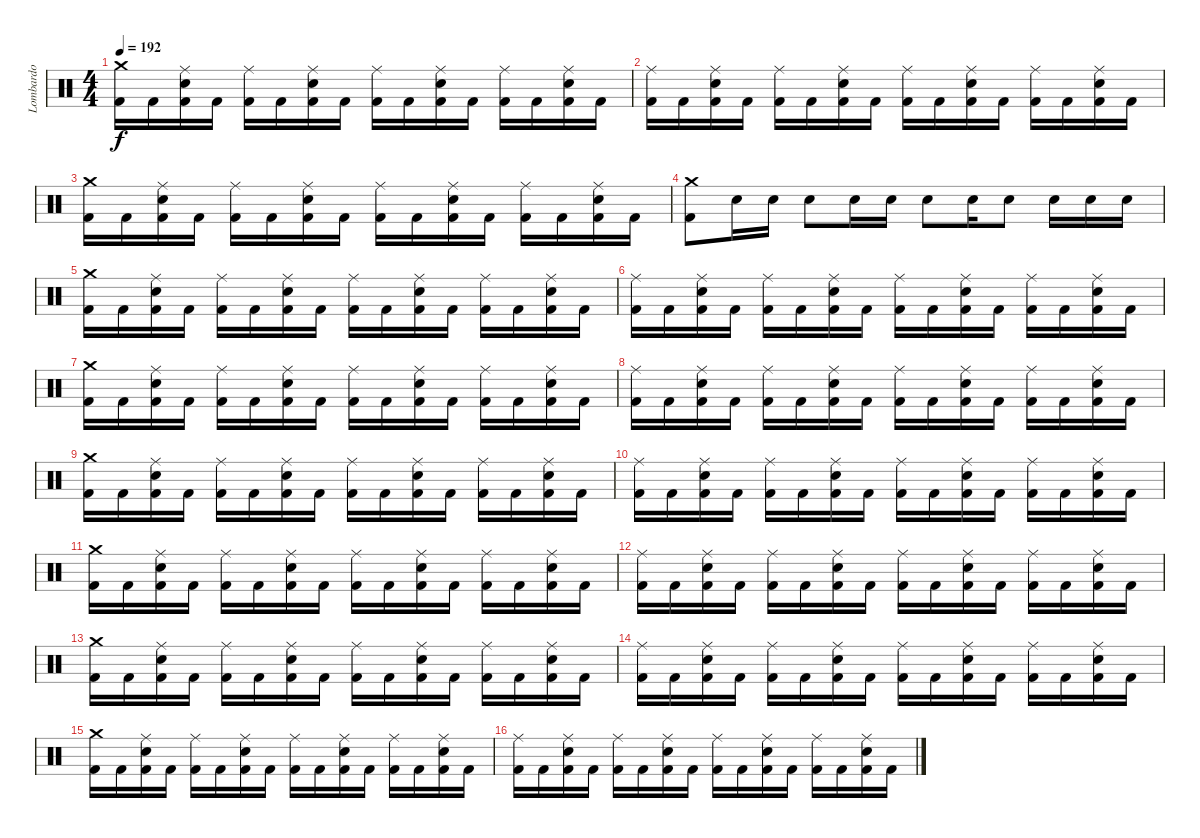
\track ("Lombardo" "Lombardo") {instrument percussion}
\staff {score}
\articulation defaults
\ts (4 4)
\tempo 192
\clef neutral
\ks c
("Crash medium (hit)" "Kick (hit) 2").16{dy f} "Kick (hit) 2".16 ("Ride (middle)" "Snare (hit) 2" "Kick (hit) 2").16 "Kick (hit) 2".16 ("Ride (middle)" "Kick (hit) 2").16 "Kick (hit) 2".16 ("Ride (middle)" "Snare (hit) 2" "Kick (hit) 2").16 "Kick (hit) 2".16 ("Ride (middle)" "Kick (hit) 2").16 "Kick (hit) 2".16 ("Ride (middle)" "Snare (hit) 2" "Kick (hit) 2").16 "Kick (hit) 2".16 ("Ride (middle)" "Kick (hit) 2").16 "Kick (hit) 2".16 ("Ride (middle)" "Snare (hit) 2" "Kick (hit) 2").16 "Kick (hit) 2".16 |
("Ride (middle)" "Kick (hit) 2").16 "Kick (hit) 2".16 ("Ride (middle)" "Snare (hit) 2" "Kick (hit) 2").16 "Kick (hit) 2".16 ("Ride (middle)" "Kick (hit) 2").16 "Kick (hit) 2".16 ("Ride (middle)" "Snare (hit) 2" "Kick (hit) 2").16 "Kick (hit) 2".16 ("Ride (middle)" "Kick (hit) 2").16 "Kick (hit) 2".16 ("Ride (middle)" "Snare (hit) 2" "Kick (hit) 2").16 "Kick (hit) 2".16 ("Ride (middle)" "Kick (hit) 2").16 "Kick (hit) 2".16 ("Ride (middle)" "Snare (hit) 2" "Kick (hit) 2").16 "Kick (hit) 2".16 |
("Crash medium (hit)" "Kick (hit) 2").16 "Kick (hit) 2".16 ("Ride (middle)" "Snare (hit) 2" "Kick (hit) 2").16 "Kick (hit) 2".16 ("Ride (middle)" "Kick (hit) 2").16 "Kick (hit) 2".16 ("Ride (middle)" "Snare (hit) 2" "Kick (hit) 2").16 "Kick (hit) 2".16 ("Ride (middle)" "Kick (hit) 2").16 "Kick (hit) 2".16 ("Ride (middle)" "Snare (hit) 2" "Kick (hit) 2").16 "Kick (hit) 2".16 ("Ride (middle)" "Kick (hit) 2").16 "Kick (hit) 2".16 ("Ride (middle)" "Snare (hit) 2" "Kick (hit) 2").16 "Kick (hit) 2".16 |
("Crash medium (hit)" "Kick (hit) 2").8 "Snare (hit) 2".16 "Snare (hit) 2".16 "Snare (hit) 2".8 "Snare (hit) 2".16 "Snare (hit) 2".16 "Snare (hit) 2".8 "Snare (hit) 2".16 "Snare (hit) 2".8 "Snare (hit) 2".16 "Snare (hit) 2".16 "Snare (hit) 2".16 |
("Crash medium (hit)" "Kick (hit) 2").16 "Kick (hit) 2".16 ("Ride (middle)" "Snare (hit) 2" "Kick (hit) 2").16 "Kick (hit) 2".16 ("Ride (middle)" "Kick (hit) 2").16 "Kick (hit) 2".16 ("Ride (middle)" "Snare (hit) 2" "Kick (hit) 2").16 "Kick (hit) 2".16 ("Ride (middle)" "Kick (hit) 2").16 "Kick (hit) 2".16 ("Ride (middle)" "Snare (hit) 2" "Kick (hit) 2").16 "Kick (hit) 2".16 ("Ride (middle)" "Kick (hit) 2").16 "Kick (hit) 2".16 ("Ride (middle)" "Snare (hit) 2" "Kick (hit) 2").16 "Kick (hit) 2".16 |
("Ride (middle)" "Kick (hit) 2").16 "Kick (hit) 2".16 ("Ride (middle)" "Snare (hit) 2" "Kick (hit) 2").16 "Kick (hit) 2".16 ("Ride (middle)" "Kick (hit) 2").16 "Kick (hit) 2".16 ("Ride (middle)" "Snare (hit) 2" "Kick (hit) 2").16 "Kick (hit) 2".16 ("Ride (middle)" "Kick (hit) 2").16 "Kick (hit) 2".16 ("Ride (middle)" "Snare (hit) 2" "Kick (hit) 2").16 "Kick (hit) 2".16 ("Ride (middle)" "Kick (hit) 2").16 "Kick (hit) 2".16 ("Ride (middle)" "Snare (hit) 2" "Kick (hit) 2").16 "Kick (hit) 2".16 |
("Crash medium (hit)" "Kick (hit) 2").16 "Kick (hit) 2".16 ("Ride (middle)" "Snare (hit) 2" "Kick (hit) 2").16 "Kick (hit) 2".16 ("Ride (middle)" "Kick (hit) 2").16 "Kick (hit) 2".16 ("Ride (middle)" "Snare (hit) 2" "Kick (hit) 2").16 "Kick (hit) 2".16 ("Ride (middle)" "Kick (hit) 2").16 "Kick (hit) 2".16 ("Ride (middle)" "Snare (hit) 2" "Kick (hit) 2").16 "Kick (hit) 2".16 ("Ride (middle)" "Kick (hit) 2").16 "Kick (hit) 2".16 ("Ride (middle)" "Snare (hit) 2" "Kick (hit) 2").16 "Kick (hit) 2".16 |
("Ride (middle)" "Kick (hit) 2").16 "Kick (hit) 2".16 ("Ride (middle)" "Snare (hit) 2" "Kick (hit) 2").16 "Kick (hit) 2".16 ("Ride (middle)" "Kick (hit) 2").16 "Kick (hit) 2".16 ("Ride (middle)" "Snare (hit) 2" "Kick (hit) 2").16 "Kick (hit) 2".16 ("Ride (middle)" "Kick (hit) 2").16 "Kick (hit) 2".16 ("Ride (middle)" "Snare (hit) 2" "Kick (hit) 2").16 "Kick (hit) 2".16 ("Ride (middle)" "Kick (hit) 2").16 "Kick (hit) 2".16 ("Ride (middle)" "Snare (hit) 2" "Kick (hit) 2").16 "Kick (hit) 2".16 |
("Crash medium (hit)" "Kick (hit) 2").16 "Kick (hit) 2".16 ("Ride (middle)" "Snare (hit) 2" "Kick (hit) 2").16 "Kick (hit) 2".16 ("Ride (middle)" "Kick (hit) 2").16 "Kick (hit) 2".16 ("Ride (middle)" "Snare (hit) 2" "Kick (hit) 2").16 "Kick (hit) 2".16 ("Ride (middle)" "Kick (hit) 2").16 "Kick (hit) 2".16 ("Ride (middle)" "Snare (hit) 2" "Kick (hit) 2").16 "Kick (hit) 2".16 ("Ride (middle)" "Kick (hit) 2").16 "Kick (hit) 2".16 ("Ride (middle)" "Snare (hit) 2" "Kick (hit) 2").16 "Kick (hit) 2".16 |
("Ride (middle)" "Kick (hit) 2").16 "Kick (hit) 2".16 ("Ride (middle)" "Snare (hit) 2" "Kick (hit) 2").16 "Kick (hit) 2".16 ("Ride (middle)" "Kick (hit) 2").16 "Kick (hit) 2".16 ("Ride (middle)" "Snare (hit) 2" "Kick (hit) 2").16 "Kick (hit) 2".16 ("Ride (middle)" "Kick (hit) 2").16 "Kick (hit) 2".16 ("Ride (middle)" "Snare (hit) 2" "Kick (hit) 2").16 "Kick (hit) 2".16 ("Ride (middle)" "Kick (hit) 2").16 "Kick (hit) 2".16 ("Ride (middle)" "Snare (hit) 2" "Kick (hit) 2").16 "Kick (hit) 2".16 |
("Crash medium (hit)" "Kick (hit) 2").16 "Kick (hit) 2".16 ("Ride (middle)" "Snare (hit) 2" "Kick (hit) 2").16 "Kick (hit) 2".16 ("Ride (middle)" "Kick (hit) 2").16 "Kick (hit) 2".16 ("Ride (middle)" "Snare (hit) 2" "Kick (hit) 2").16 "Kick (hit) 2".16 ("Ride (middle)" "Kick (hit) 2").16 "Kick (hit) 2".16 ("Ride (middle)" "Snare (hit) 2" "Kick (hit) 2").16 "Kick (hit) 2".16 ("Ride (middle)" "Kick (hit) 2").16 "Kick (hit) 2".16 ("Ride (middle)" "Snare (hit) 2" "Kick (hit) 2").16 "Kick (hit) 2".16 |
("Ride (middle)" "Kick (hit) 2").16 "Kick (hit) 2".16 ("Ride (middle)" "Snare (hit) 2" "Kick (hit) 2").16 "Kick (hit) 2".16 ("Ride (middle)" "Kick (hit) 2").16 "Kick (hit) 2".16 ("Ride (middle)" "Snare (hit) 2" "Kick (hit) 2").16 "Kick (hit) 2".16 ("Ride (middle)" "Kick (hit) 2").16 "Kick (hit) 2".16 ("Ride (middle)" "Snare (hit) 2" "Kick (hit) 2").16 "Kick (hit) 2".16 ("Ride (middle)" "Kick (hit) 2").16 "Kick (hit) 2".16 ("Ride (middle)" "Snare (hit) 2" "Kick (hit) 2").16 "Kick (hit) 2".16 |
("Crash medium (hit)" "Kick (hit) 2").16 "Kick (hit) 2".16 ("Ride (middle)" "Snare (hit) 2" "Kick (hit) 2").16 "Kick (hit) 2".16 ("Ride (middle)" "Kick (hit) 2").16 "Kick (hit) 2".16 ("Ride (middle)" "Snare (hit) 2" "Kick (hit) 2").16 "Kick (hit) 2".16 ("Ride (middle)" "Kick (hit) 2").16 "Kick (hit) 2".16 ("Ride (middle)" "Snare (hit) 2" "Kick (hit) 2").16 "Kick (hit) 2".16 ("Ride (middle)" "Kick (hit) 2").16 "Kick (hit) 2".16 ("Ride (middle)" "Snare (hit) 2" "Kick (hit) 2").16 "Kick (hit) 2".16 |
("Ride (middle)" "Kick (hit) 2").16 "Kick (hit) 2".16 ("Ride (middle)" "Snare (hit) 2" "Kick (hit) 2").16 "Kick (hit) 2".16 ("Ride (middle)" "Kick (hit) 2").16 "Kick (hit) 2".16 ("Ride (middle)" "Snare (hit) 2" "Kick (hit) 2").16 "Kick (hit) 2".16 ("Ride (middle)" "Kick (hit) 2").16 "Kick (hit) 2".16 ("Ride (middle)" "Snare (hit) 2" "Kick (hit) 2").16 "Kick (hit) 2".16 ("Ride (middle)" "Kick (hit) 2").16 "Kick (hit) 2".16 ("Ride (middle)" "Snare (hit) 2" "Kick (hit) 2").16 "Kick (hit) 2".16 |
("Crash medium (hit)" "Kick (hit) 2").16 "Kick (hit) 2".16 ("Ride (middle)" "Snare (hit) 2" "Kick (hit) 2").16 "Kick (hit) 2".16 ("Ride (middle)" "Kick (hit) 2").16 "Kick (hit) 2".16 ("Ride (middle)" "Snare (hit) 2" "Kick (hit) 2").16 "Kick (hit) 2".16 ("Ride (middle)" "Kick (hit) 2").16 "Kick (hit) 2".16 ("Ride (middle)" "Snare (hit) 2" "Kick (hit) 2").16 "Kick (hit) 2".16 ("Ride (middle)" "Kick (hit) 2").16 "Kick (hit) 2".16 ("Ride (middle)" "Snare (hit) 2" "Kick (hit) 2").16 "Kick (hit) 2".16 |
("Ride (middle)" "Kick (hit) 2").16 "Kick (hit) 2".16 ("Ride (middle)" "Snare (hit) 2" "Kick (hit) 2").16 "Kick (hit) 2".16 ("Ride (middle)" "Kick (hit) 2").16 "Kick (hit) 2".16 ("Ride (middle)" "Snare (hit) 2" "Kick (hit) 2").16 "Kick (hit) 2".16 ("Ride (middle)" "Kick (hit) 2").16 "Kick (hit) 2".16 ("Ride (middle)" "Snare (hit) 2" "Kick (hit) 2").16 "Kick (hit) 2".16 ("Ride (middle)" "Kick (hit) 2").16 "Kick (hit) 2".16 ("Ride (middle)" "Snare (hit) 2" "Kick (hit) 2").16 "Kick (hit) 2".16
